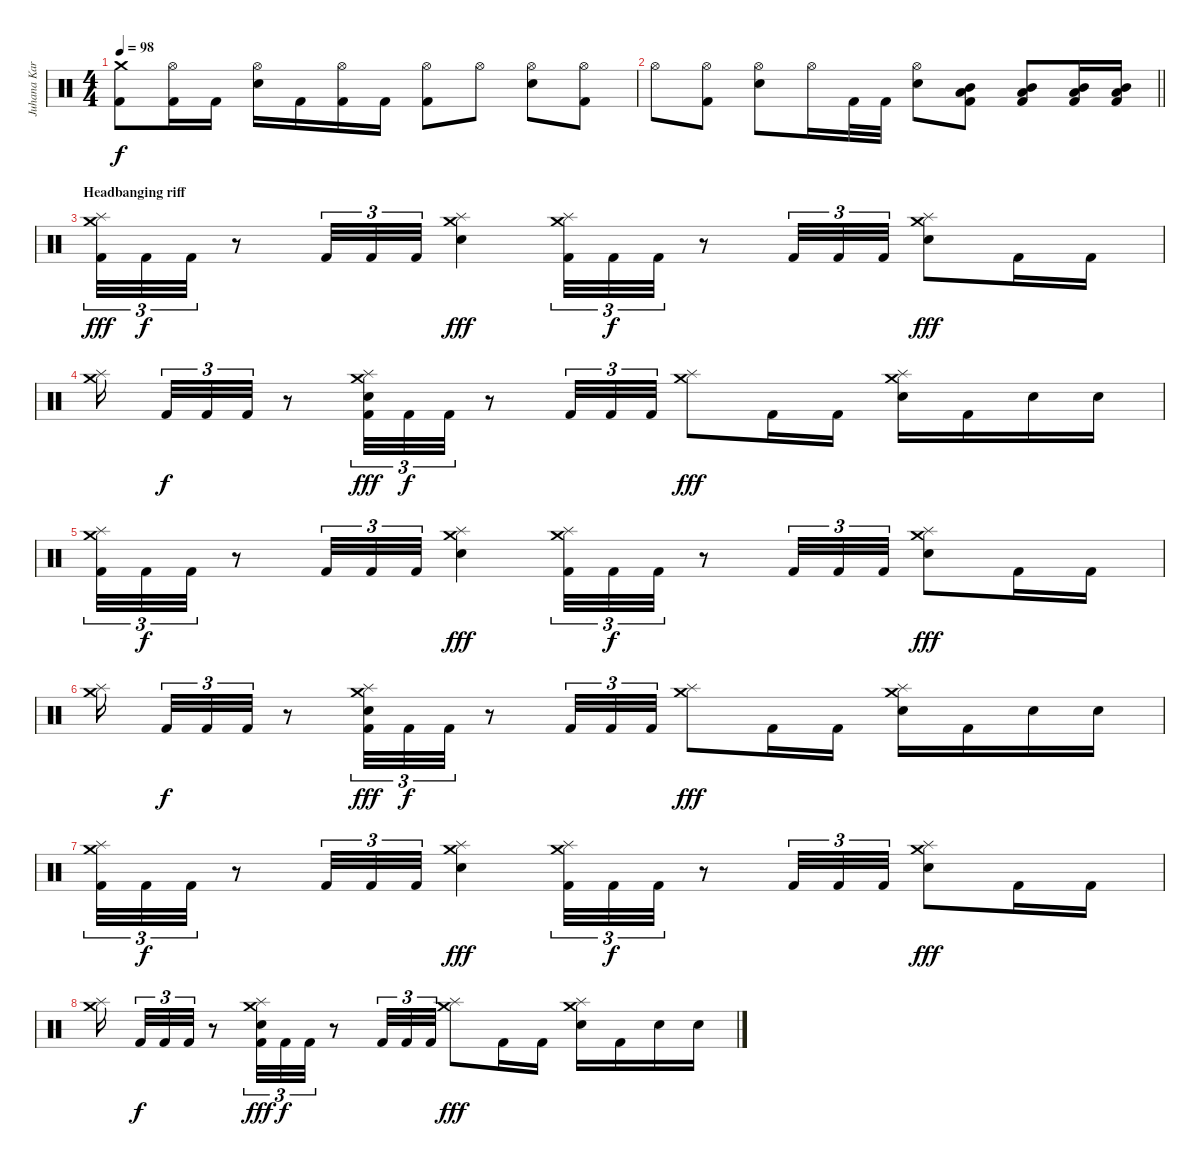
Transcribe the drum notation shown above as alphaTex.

\track ("Juhana Karlsson " "Juhana Kar") {instrument percussion}
\staff {score}
\articulation defaults
\ts (4 4)
\tempo 98
\clef neutral
\ks c
("Crash medium (hit)" "Kick (hit) 2").8{dy f} ("Hi-Hat (open)" "Kick (hit) 2").16 "Kick (hit) 2".16 ("Hi-Hat (open)" "Electric Snare (hit)").16 "Kick (hit) 2".16 ("Hi-Hat (open)" "Kick (hit) 2").16 "Kick (hit) 2".16 ("Hi-Hat (open)" "Kick (hit) 2").8 "Hi-Hat (open)".8 ("Hi-Hat (open)" "Electric Snare (hit)").8 ("Hi-Hat (open)" "Kick (hit) 2").8 |
\barLineRight lightlight "Hi-Hat (open)".8
("Hi-Hat (open)" "Kick (hit) 2").8 ("Hi-Hat (open)" "Electric Snare (hit)").8 "Hi-Hat (open)".16 "Kick (hit) 2".32 "Kick (hit) 2".32 ("Hi-Hat (open)" "Electric Snare (hit)").8 ("Mid Tom (hit)" "Low Tom (hit)" "Kick (hit) 2").8 ("Mid Tom (hit)" "Low Tom (hit)" "Kick (hit) 2").8 ("Mid Tom (hit)" "Low Tom (hit)" "Kick (hit) 2").16 ("Mid Tom (hit)" "Low Tom (hit)" "Kick (hit) 2").16 |
\section ("" "Headbanging riff")
("Crash medium (hit)" "Splash (hit)" "Kick (hit) 2").32{tu (3 2) dy fff} "Kick (hit) 2".32{tu (3 2) dy f} "Kick (hit) 2".32{tu (3 2)} r.8 "Kick (hit) 2".32{tu (3 2)} "Kick (hit) 2".32{tu (3 2)} "Kick (hit) 2".32{tu (3 2)} ("Crash medium (hit)" "Splash (hit)" "Electric Snare (hit)").4{dy fff} ("Crash medium (hit)" "Splash (hit)" "Kick (hit) 2").32{tu (3 2)} "Kick (hit) 2".32{tu (3 2) dy f} "Kick (hit) 2".32{tu (3 2)} r.8 "Kick (hit) 2".32{tu (3 2)} "Kick (hit) 2".32{tu (3 2)} "Kick (hit) 2".32{tu (3 2)} ("Crash medium (hit)" "Splash (hit)" "Electric Snare (hit)").8{dy fff} "Kick (hit) 2".16 "Kick (hit) 2".16 |
("Crash medium (hit)" "Splash (hit)").16{beam splitsecondary} "Kick (hit) 2".32{tu (3 2) dy f} "Kick (hit) 2".32{tu (3 2)} "Kick (hit) 2".32{tu (3 2)} r.8 ("Crash medium (hit)" "Splash (hit)" "Electric Snare (hit)" "Kick (hit) 2").32{tu (3 2) dy fff} "Kick (hit) 2".32{tu (3 2) dy f} "Kick (hit) 2".32{tu (3 2)} r.8 "Kick (hit) 2".32{tu (3 2)} "Kick (hit) 2".32{tu (3 2)} "Kick (hit) 2".32{tu (3 2)} ("Crash medium (hit)" "Splash (hit)").8{dy fff} "Kick (hit) 2".16 "Kick (hit) 2".16 ("Crash medium (hit)" "Splash (hit)" "Electric Snare (hit)").16 "Kick (hit) 2".16 "Electric Snare (hit)".16 "Electric Snare (hit)".16 |
("Crash medium (hit)" "Splash (hit)" "Kick (hit) 2").32{tu (3 2)} "Kick (hit) 2".32{tu (3 2) dy f} "Kick (hit) 2".32{tu (3 2)} r.8 "Kick (hit) 2".32{tu (3 2)} "Kick (hit) 2".32{tu (3 2)} "Kick (hit) 2".32{tu (3 2)} ("Crash medium (hit)" "Splash (hit)" "Electric Snare (hit)").4{dy fff} ("Crash medium (hit)" "Splash (hit)" "Kick (hit) 2").32{tu (3 2)} "Kick (hit) 2".32{tu (3 2) dy f} "Kick (hit) 2".32{tu (3 2)} r.8 "Kick (hit) 2".32{tu (3 2)} "Kick (hit) 2".32{tu (3 2)} "Kick (hit) 2".32{tu (3 2)} ("Crash medium (hit)" "Splash (hit)" "Electric Snare (hit)").8{dy fff} "Kick (hit) 2".16 "Kick (hit) 2".16 |
("Crash medium (hit)" "Splash (hit)").16{beam splitsecondary} "Kick (hit) 2".32{tu (3 2) dy f} "Kick (hit) 2".32{tu (3 2)} "Kick (hit) 2".32{tu (3 2)} r.8 ("Crash medium (hit)" "Splash (hit)" "Electric Snare (hit)" "Kick (hit) 2").32{tu (3 2) dy fff} "Kick (hit) 2".32{tu (3 2) dy f} "Kick (hit) 2".32{tu (3 2)} r.8 "Kick (hit) 2".32{tu (3 2)} "Kick (hit) 2".32{tu (3 2)} "Kick (hit) 2".32{tu (3 2)} ("Crash medium (hit)" "Splash (hit)").8{dy fff} "Kick (hit) 2".16 "Kick (hit) 2".16 ("Crash medium (hit)" "Splash (hit)" "Electric Snare (hit)").16 "Kick (hit) 2".16 "Electric Snare (hit)".16 "Electric Snare (hit)".16 |
("Crash medium (hit)" "Splash (hit)" "Kick (hit) 2").32{tu (3 2)} "Kick (hit) 2".32{tu (3 2) dy f} "Kick (hit) 2".32{tu (3 2)} r.8 "Kick (hit) 2".32{tu (3 2)} "Kick (hit) 2".32{tu (3 2)} "Kick (hit) 2".32{tu (3 2)} ("Crash medium (hit)" "Splash (hit)" "Electric Snare (hit)").4{dy fff} ("Crash medium (hit)" "Splash (hit)" "Kick (hit) 2").32{tu (3 2)} "Kick (hit) 2".32{tu (3 2) dy f} "Kick (hit) 2".32{tu (3 2)} r.8 "Kick (hit) 2".32{tu (3 2)} "Kick (hit) 2".32{tu (3 2)} "Kick (hit) 2".32{tu (3 2)} ("Crash medium (hit)" "Splash (hit)" "Electric Snare (hit)").8{dy fff} "Kick (hit) 2".16 "Kick (hit) 2".16 |
("Crash medium (hit)" "Splash (hit)").16{beam splitsecondary} "Kick (hit) 2".32{tu (3 2) dy f} "Kick (hit) 2".32{tu (3 2)} "Kick (hit) 2".32{tu (3 2)} r.8 ("Crash medium (hit)" "Splash (hit)" "Electric Snare (hit)" "Kick (hit) 2").32{tu (3 2) dy fff} "Kick (hit) 2".32{tu (3 2) dy f} "Kick (hit) 2".32{tu (3 2)} r.8 "Kick (hit) 2".32{tu (3 2)} "Kick (hit) 2".32{tu (3 2)} "Kick (hit) 2".32{tu (3 2)} ("Crash medium (hit)" "Splash (hit)").8{dy fff} "Kick (hit) 2".16 "Kick (hit) 2".16 ("Crash medium (hit)" "Splash (hit)" "Electric Snare (hit)").16 "Kick (hit) 2".16 "Electric Snare (hit)".16 "Electric Snare (hit)".16
